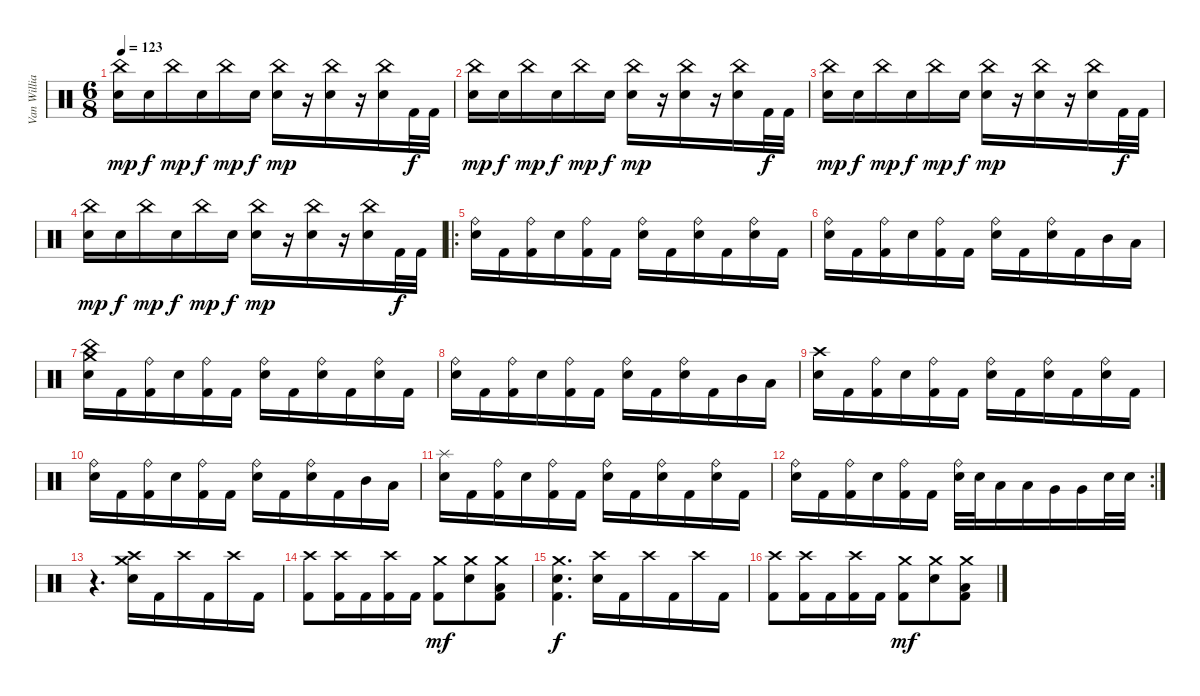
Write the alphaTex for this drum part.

\track ("Van Williams" "Van Willia") {instrument percussion}
\staff {score}
\articulation defaults
\ts (6 8)
\tempo 123
\clef neutral
\ks c
("China (hit)" "Electric Snare (hit)").16{dy mp} "Electric Snare (hit)".16{dy f} "China (hit)".16{dy mp} "Electric Snare (hit)".16{dy f} "China (hit)".16{dy mp} "Electric Snare (hit)".16{dy f} ("China (hit)" "Electric Snare (hit)").16{dy mp} r.16 ("China (hit)" "Electric Snare (hit)").16 r.16 ("China (hit)" "Electric Snare (hit)").16 "Kick (hit) 2".32{dy f} "Kick (hit) 2".32 |
("China (hit)" "Electric Snare (hit)").16{dy mp} "Electric Snare (hit)".16{dy f} "China (hit)".16{dy mp} "Electric Snare (hit)".16{dy f} "China (hit)".16{dy mp} "Electric Snare (hit)".16{dy f} ("China (hit)" "Electric Snare (hit)").16{dy mp} r.16 ("China (hit)" "Electric Snare (hit)").16 r.16 ("China (hit)" "Electric Snare (hit)").16 "Kick (hit) 2".32{dy f} "Kick (hit) 2".32 |
("China (hit)" "Electric Snare (hit)").16{dy mp} "Electric Snare (hit)".16{dy f} "China (hit)".16{dy mp} "Electric Snare (hit)".16{dy f} "China (hit)".16{dy mp} "Electric Snare (hit)".16{dy f} ("China (hit)" "Electric Snare (hit)").16{dy mp} r.16 ("China (hit)" "Electric Snare (hit)").16 r.16 ("China (hit)" "Electric Snare (hit)").16 "Kick (hit) 2".32{dy f} "Kick (hit) 2".32 |
("China (hit)" "Electric Snare (hit)").16{dy mp} "Electric Snare (hit)".16{dy f} "China (hit)".16{dy mp} "Electric Snare (hit)".16{dy f} "China (hit)".16{dy mp} "Electric Snare (hit)".16{dy f} ("China (hit)" "Electric Snare (hit)").16{dy mp} r.16 ("China (hit)" "Electric Snare (hit)").16 r.16 ("China (hit)" "Electric Snare (hit)").16 "Kick (hit) 2".32{dy f} "Kick (hit) 2".32 |
\ro
("Ride (bell)" "Electric Snare (hit)").16 "Kick (hit) 2".16 ("Ride (bell)" "Kick (hit) 2").16 "Electric Snare (hit)".16 ("Ride (bell)" "Kick (hit) 2").16 "Kick (hit) 2".16 ("Ride (bell)" "Electric Snare (hit)").16 "Kick (hit) 2".16 ("Ride (bell)" "Electric Snare (hit)").16 "Kick (hit) 2".16 ("Ride (bell)" "Electric Snare (hit)").16 "Kick (hit) 2".16 |
("Ride (bell)" "Electric Snare (hit)").16 "Kick (hit) 2".16 ("Ride (bell)" "Kick (hit) 2").16 "Electric Snare (hit)".16 ("Ride (bell)" "Kick (hit) 2").16 "Kick (hit) 2".16 ("Ride (bell)" "Electric Snare (hit)").16 "Kick (hit) 2".16 ("Ride (bell)" "Electric Snare (hit)").16 "Kick (hit) 2".16 "Mid Tom (hit)".16 "Low Tom (hit)".16 |
("China (hit)" "Crash medium (hit)" "Electric Snare (hit)").16 "Kick (hit) 2".16 ("Ride (bell)" "Kick (hit) 2").16 "Electric Snare (hit)".16 ("Ride (bell)" "Kick (hit) 2").16 "Kick (hit) 2".16 ("Ride (bell)" "Electric Snare (hit)").16 "Kick (hit) 2".16 ("Ride (bell)" "Electric Snare (hit)").16 "Kick (hit) 2".16 ("Ride (bell)" "Electric Snare (hit)").16 "Kick (hit) 2".16 |
("Ride (bell)" "Electric Snare (hit)").16 "Kick (hit) 2".16 ("Ride (bell)" "Kick (hit) 2").16 "Electric Snare (hit)".16 ("Ride (bell)" "Kick (hit) 2").16 "Kick (hit) 2".16 ("Ride (bell)" "Electric Snare (hit)").16 "Kick (hit) 2".16 ("Ride (bell)" "Electric Snare (hit)").16 "Kick (hit) 2".16 "Mid Tom (hit)".16 "Low Tom (hit)".16 |
("Crash high (hit)" "Electric Snare (hit)").16 "Kick (hit) 2".16 ("Ride (bell)" "Kick (hit) 2").16 "Electric Snare (hit)".16 ("Ride (bell)" "Kick (hit) 2").16 "Kick (hit) 2".16 ("Ride (bell)" "Electric Snare (hit)").16 "Kick (hit) 2".16 ("Ride (bell)" "Electric Snare (hit)").16 "Kick (hit) 2".16 ("Ride (bell)" "Electric Snare (hit)").16 "Kick (hit) 2".16 |
("Ride (bell)" "Electric Snare (hit)").16 "Kick (hit) 2".16 ("Ride (bell)" "Kick (hit) 2").16 "Electric Snare (hit)".16 ("Ride (bell)" "Kick (hit) 2").16 "Kick (hit) 2".16 ("Ride (bell)" "Electric Snare (hit)").16 "Kick (hit) 2".16 ("Ride (bell)" "Electric Snare (hit)").16 "Kick (hit) 2".16 "Mid Tom (hit)".16 "Low Tom (hit)".16 |
("Splash (hit)" "Electric Snare (hit)").16 "Kick (hit) 2".16 ("Ride (bell)" "Kick (hit) 2").16 "Electric Snare (hit)".16 ("Ride (bell)" "Kick (hit) 2").16 "Kick (hit) 2".16 ("Ride (bell)" "Electric Snare (hit)").16 "Kick (hit) 2".16 ("Ride (bell)" "Electric Snare (hit)").16 "Kick (hit) 2".16 ("Ride (bell)" "Electric Snare (hit)").16 "Kick (hit) 2".16 |
\rc 2
("Ride (bell)" "Electric Snare (hit)").16 "Kick (hit) 2".16 ("Ride (bell)" "Kick (hit) 2").16 "Electric Snare (hit)".16 ("Ride (bell)" "Kick (hit) 2").16 "Kick (hit) 2".16 ("Ride (bell)" "Electric Snare (hit)").32 "Electric Snare (hit)".32 "Low Tom (hit)".16 "Low Tom (hit)".16 "Very Low Tom (hit)".16 "Very Low Tom (hit)".16 "Electric Snare (hit)".32 "Electric Snare (hit)".32 |
r.4{d} ("Crash high (hit)" "Crash medium (hit)" "Electric Snare (hit)").16 "Kick (hit) 2".16 "Crash high (hit)".16 "Kick (hit) 2".16 "Crash high (hit)".16 "Kick (hit) 2".16 |
("Crash high (hit)" "Kick (hit) 2").8 ("Crash high (hit)" "Kick (hit) 2").16 "Kick (hit) 2".16 ("Crash high (hit)" "Kick (hit) 2").16 "Kick (hit) 2".16 ("Crash medium (hit)" "Kick (hit) 2").8{dy mf} ("Crash medium (hit)" "Electric Snare (hit)").8 ("Crash medium (hit)" "Low Floor Tom (hit)" "Kick (hit) 2").8 |
("Crash medium (hit)" "Electric Snare (hit)" "Kick (hit) 2").4{d dy f} ("Crash high (hit)" "Electric Snare (hit)").16 "Kick (hit) 2".16 "Crash high (hit)".16 "Kick (hit) 2".16 "Crash high (hit)".16 "Kick (hit) 2".16 |
("Crash high (hit)" "Kick (hit) 2").8 ("Crash high (hit)" "Kick (hit) 2").16 "Kick (hit) 2".16 ("Crash high (hit)" "Kick (hit) 2").16 "Kick (hit) 2".16 ("Crash medium (hit)" "Kick (hit) 2").8{dy mf} ("Crash medium (hit)" "Electric Snare (hit)").8 ("Crash medium (hit)" "Low Floor Tom (hit)" "Kick (hit) 2").8
